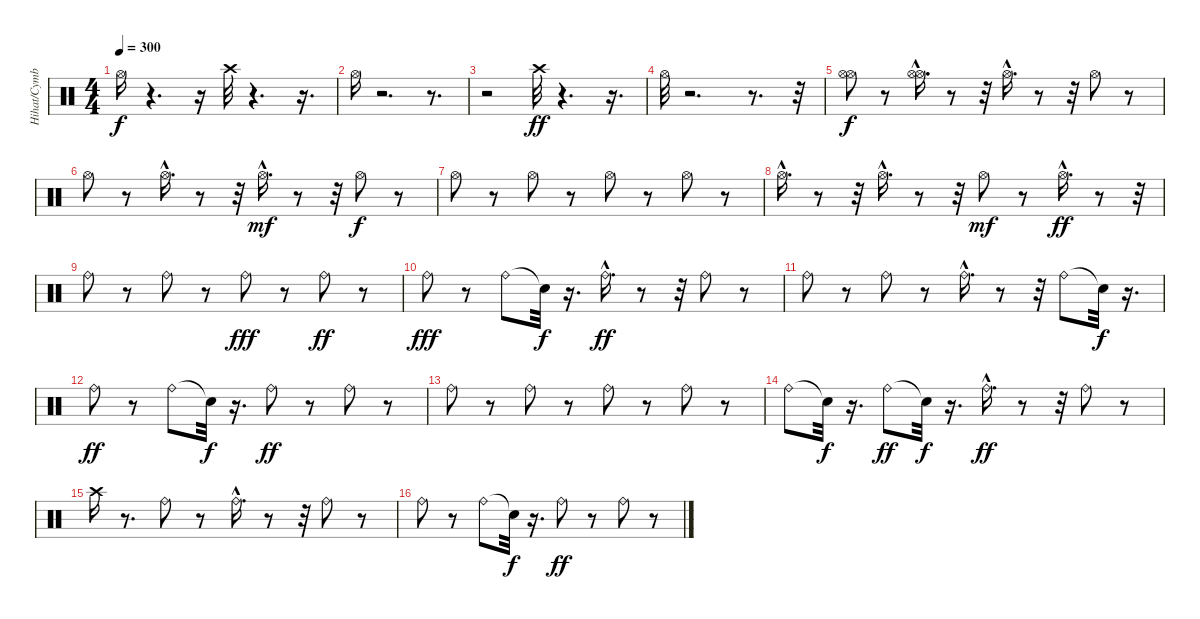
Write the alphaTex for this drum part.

\track ("Hihat/Cymbals/Tambourine" "Hihat/Cymb") {instrument percussion}
\staff {score}
\articulation defaults
\ts (4 4)
\tempo 300
\clef neutral
\ks c "Hi-Hat (open)".16{dy f}
r.4{d} r.16 "Crash high (hit)".32 r.4{d} r.16{d} |
"Hi-Hat (open)".16 r.2{d} r.8{d} |
r.2 "Crash high (hit)".32{dy ff} r.4{d} r.16{d} |
"Hi-Hat (open)".32 r.2{d} r.8{d} r.32 |
("Hi-Hat (open)" "Hi-Hat (open)").8{dy f} r.8 ("Hi-Hat (open)"{hac} "Hi-Hat (open)"{hac}).16{d} r.8 r.32 "Hi-Hat (open)"{hac}.16{d} r.8 r.32 "Hi-Hat (open)".8 r.8 |
"Hi-Hat (open)".8 r.8 "Hi-Hat (open)"{hac}.16{d} r.8 r.32 "Hi-Hat (open)"{hac}.16{d dy mf} r.8 r.32 "Hi-Hat (open)".8{dy f} r.8 |
"Hi-Hat (open)".8 r.8 "Hi-Hat (open)".8 r.8 "Hi-Hat (open)".8 r.8 "Hi-Hat (open)".8 r.8 |
"Hi-Hat (open)"{hac}.16{d} r.8 r.32 "Hi-Hat (open)"{hac}.16{d} r.8 r.32 "Hi-Hat (open)".8{dy mf} r.8 "Hi-Hat (open)"{hac}.16{d dy ff} r.8 r.32 |
"Ride (bell)".8 r.8 "Ride (bell)".8 r.8 "Ride (bell)".8{dy fff} r.8 "Ride (bell)".8{dy ff} r.8 |
"Ride (bell)".8{dy fff} r.8 "Ride (bell)".8 "Snare (hit)"{t}.32{dy f} r.16{d} "Ride (bell)"{hac}.16{d dy ff} r.8 r.32 "Ride (bell)".8 r.8 |
"Ride (bell)".8 r.8 "Ride (bell)".8 r.8 "Ride (bell)"{hac}.16{d} r.8 r.32 "Ride (bell)".8 "Snare (hit)"{t}.32{dy f} r.16{d} |
"Ride (bell)".8{dy ff} r.8 "Ride (bell)".8 "Snare (hit)"{t}.32{dy f} r.16{d} "Ride (bell)".8{dy ff} r.8 "Ride (bell)".8 r.8 |
"Ride (bell)".8 r.8 "Ride (bell)".8 r.8 "Ride (bell)".8 r.8 "Ride (bell)".8 r.8 |
"Ride (bell)".8 "Snare (hit)"{t}.32{dy f} r.16{d} "Ride (bell)".8{dy ff} "Snare (hit)"{t}.32{dy f} r.16{d} "Ride (bell)"{hac}.16{d dy ff} r.8 r.32 "Ride (bell)".8 r.8 |
"Crash high (hit)".16 r.8{d} "Ride (bell)".8 r.8 "Ride (bell)"{hac}.16{d} r.8 r.32 "Ride (bell)".8 r.8 |
"Ride (bell)".8 r.8 "Ride (bell)".8 "Snare (hit)"{t}.32{dy f} r.16{d} "Ride (bell)".8{dy ff} r.8 "Ride (bell)".8 r.8
